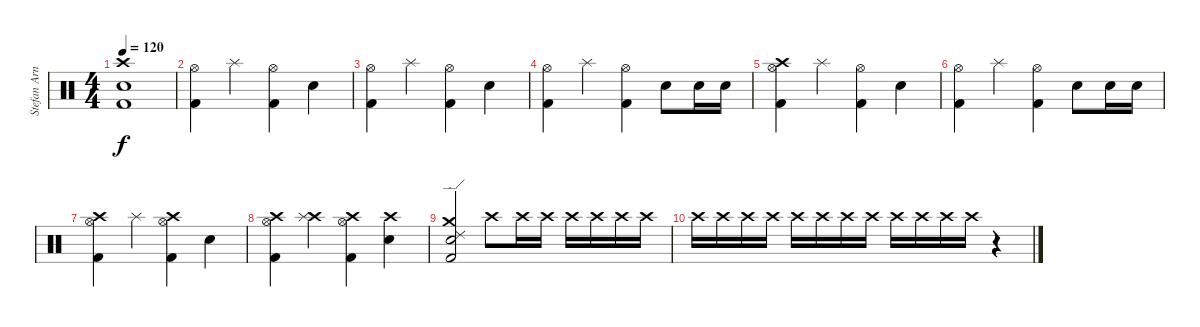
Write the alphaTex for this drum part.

\track ("Stefan Arnold Drums" "Stefan Arn") {instrument percussion}
\staff {score}
\articulation defaults
\ts (4 4)
\tempo 120
\clef neutral
\ks c
("Crash high (hit)" "Kick (hit) 2" "Electric Snare (hit)").1{dy f} |
("Hi-Hat (open)" "Kick (hit) 2").4 "Splash (hit)".4 ("Hi-Hat (open)" "Kick (hit) 2").4 "Electric Snare (hit)".4 |
("Hi-Hat (open)" "Kick (hit) 2").4 "Splash (hit)".4 ("Hi-Hat (open)" "Kick (hit) 2").4 "Electric Snare (hit)".4 |
("Hi-Hat (open)" "Kick (hit) 2").4 "Splash (hit)".4 ("Hi-Hat (open)" "Kick (hit) 2").4 "Electric Snare (hit)".8 "Snare (hit) 2".16 "Snare (hit) 2".16 |
("Crash high (hit)" "Hi-Hat (open)" "Kick (hit) 2").4 "Splash (hit)".4 ("Hi-Hat (open)" "Kick (hit) 2").4 "Electric Snare (hit)".4 |
("Hi-Hat (open)" "Kick (hit) 2").4 "Splash (hit)".4 ("Hi-Hat (open)" "Kick (hit) 2").4 "Electric Snare (hit)".8 "Snare (hit) 2".16 "Snare (hit) 2".16 |
("Crash high (hit)" "Hi-Hat (open)" "Kick (hit) 2").4 "Splash (hit)".4 ("Crash high (hit)" "Hi-Hat (open)" "Kick (hit) 2").4 "Electric Snare (hit)".4 |
("Crash high (hit)" "Hi-Hat (open)" "Kick (hit) 2").4 ("Crash high (hit)" "Splash (hit)").4 ("Crash high (hit)" "Hi-Hat (open)" "Kick (hit) 2").4 ("Crash high (hit)" "Electric Snare (hit)").4 |
("Crash medium (hit)" "Ride (edge) 2" "Electric Snare (hit)" "Kick (hit) 2").2 "Crash high (hit)".8 "Crash high (hit)".16 "Crash high (hit)".16 "Crash high (hit)".16 "Crash high (hit)".16 "Crash high (hit)".16 "Crash high (hit)".16 |
"Crash high (hit)".16 "Crash high (hit)".16 "Crash high (hit)".16 "Crash high (hit)".16 "Crash high (hit)".16 "Crash high (hit)".16 "Crash high (hit)".16 "Crash high (hit)".16 "Crash high (hit)".16 "Crash high (hit)".16 "Crash high (hit)".16 "Crash high (hit)".16 r.4
